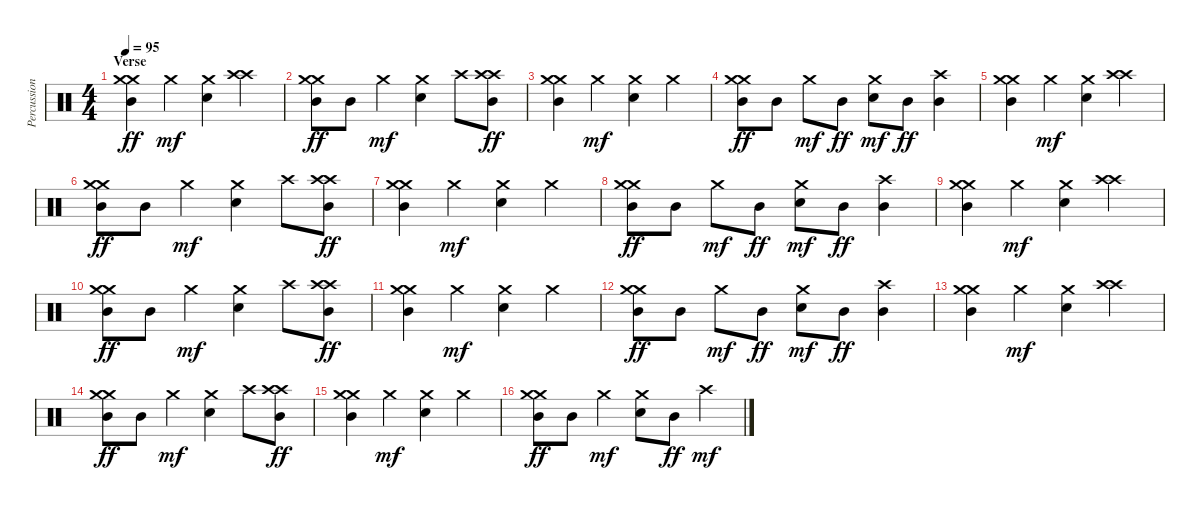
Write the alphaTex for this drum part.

\track ("Percussion" "Percussion") {instrument percussion}
\staff {score}
\articulation defaults
\ts (4 4)
\section ("" "Verse")
\tempo 95
\clef neutral
\ks c
("Crash medium (hit)" "Crash medium (hit)" "Mid Tom (hit)").4{dy ff} "Crash medium (hit)".4{dy mf} ("Crash medium (hit)" "Electric Snare (hit)").4 ("Crash high (hit)" "Crash high (hit)").4 |
("Crash medium (hit)" "Crash medium (hit)" "Mid Tom (hit)").8{dy ff} "Mid Tom (hit)".8 "Crash medium (hit)".4{dy mf} ("Crash medium (hit)" "Electric Snare (hit)").4 "Crash high (hit)".8 ("Crash high (hit)" "Crash high (hit)" "Mid Tom (hit)").8{dy ff} |
("Crash medium (hit)" "Crash medium (hit)" "Mid Tom (hit)").4 "Crash medium (hit)".4{dy mf} ("Crash medium (hit)" "Electric Snare (hit)").4 "Crash medium (hit)".4 |
("Crash medium (hit)" "Crash medium (hit)" "Mid Tom (hit)").8{dy ff} "Mid Tom (hit)".8 "Crash medium (hit)".8{dy mf} "Mid Tom (hit)".8{dy ff} ("Crash medium (hit)" "Electric Snare (hit)").8{dy mf} "Mid Tom (hit)".8{dy ff} ("Crash high (hit)" "Mid Tom (hit)").4 |
("Crash medium (hit)" "Crash medium (hit)" "Mid Tom (hit)").4 "Crash medium (hit)".4{dy mf} ("Crash medium (hit)" "Electric Snare (hit)").4 ("Crash high (hit)" "Crash high (hit)").4 |
("Crash medium (hit)" "Crash medium (hit)" "Mid Tom (hit)").8{dy ff} "Mid Tom (hit)".8 "Crash medium (hit)".4{dy mf} ("Crash medium (hit)" "Electric Snare (hit)").4 "Crash high (hit)".8 ("Crash high (hit)" "Crash high (hit)" "Mid Tom (hit)").8{dy ff} |
("Crash medium (hit)" "Crash medium (hit)" "Mid Tom (hit)").4 "Crash medium (hit)".4{dy mf} ("Crash medium (hit)" "Electric Snare (hit)").4 "Crash medium (hit)".4 |
("Crash medium (hit)" "Crash medium (hit)" "Mid Tom (hit)").8{dy ff} "Mid Tom (hit)".8 "Crash medium (hit)".8{dy mf} "Mid Tom (hit)".8{dy ff} ("Crash medium (hit)" "Electric Snare (hit)").8{dy mf} "Mid Tom (hit)".8{dy ff} ("Crash high (hit)" "Mid Tom (hit)").4 |
("Crash medium (hit)" "Crash medium (hit)" "Mid Tom (hit)").4 "Crash medium (hit)".4{dy mf} ("Crash medium (hit)" "Electric Snare (hit)").4 ("Crash high (hit)" "Crash high (hit)").4 |
("Crash medium (hit)" "Crash medium (hit)" "Mid Tom (hit)").8{dy ff} "Mid Tom (hit)".8 "Crash medium (hit)".4{dy mf} ("Crash medium (hit)" "Electric Snare (hit)").4 "Crash high (hit)".8 ("Crash high (hit)" "Crash high (hit)" "Mid Tom (hit)").8{dy ff} |
("Crash medium (hit)" "Crash medium (hit)" "Mid Tom (hit)").4 "Crash medium (hit)".4{dy mf} ("Crash medium (hit)" "Electric Snare (hit)").4 "Crash medium (hit)".4 |
("Crash medium (hit)" "Crash medium (hit)" "Mid Tom (hit)").8{dy ff} "Mid Tom (hit)".8 "Crash medium (hit)".8{dy mf} "Mid Tom (hit)".8{dy ff} ("Crash medium (hit)" "Electric Snare (hit)").8{dy mf} "Mid Tom (hit)".8{dy ff} ("Crash high (hit)" "Mid Tom (hit)").4 |
("Crash medium (hit)" "Crash medium (hit)" "Mid Tom (hit)").4 "Crash medium (hit)".4{dy mf} ("Crash medium (hit)" "Electric Snare (hit)").4 ("Crash high (hit)" "Crash high (hit)").4 |
("Crash medium (hit)" "Crash medium (hit)" "Mid Tom (hit)").8{dy ff} "Mid Tom (hit)".8 "Crash medium (hit)".4{dy mf} ("Crash medium (hit)" "Electric Snare (hit)").4 "Crash high (hit)".8 ("Crash high (hit)" "Crash high (hit)" "Mid Tom (hit)").8{dy ff} |
("Crash medium (hit)" "Crash medium (hit)" "Mid Tom (hit)").4 "Crash medium (hit)".4{dy mf} ("Crash medium (hit)" "Electric Snare (hit)").4 "Crash medium (hit)".4 |
("Crash medium (hit)" "Crash medium (hit)" "Mid Tom (hit)").8{dy ff} "Mid Tom (hit)".8 "Crash medium (hit)".4{dy mf} ("Crash medium (hit)" "Electric Snare (hit)").8 "Mid Tom (hit)".8{dy ff} "Crash high (hit)".4{dy mf}
